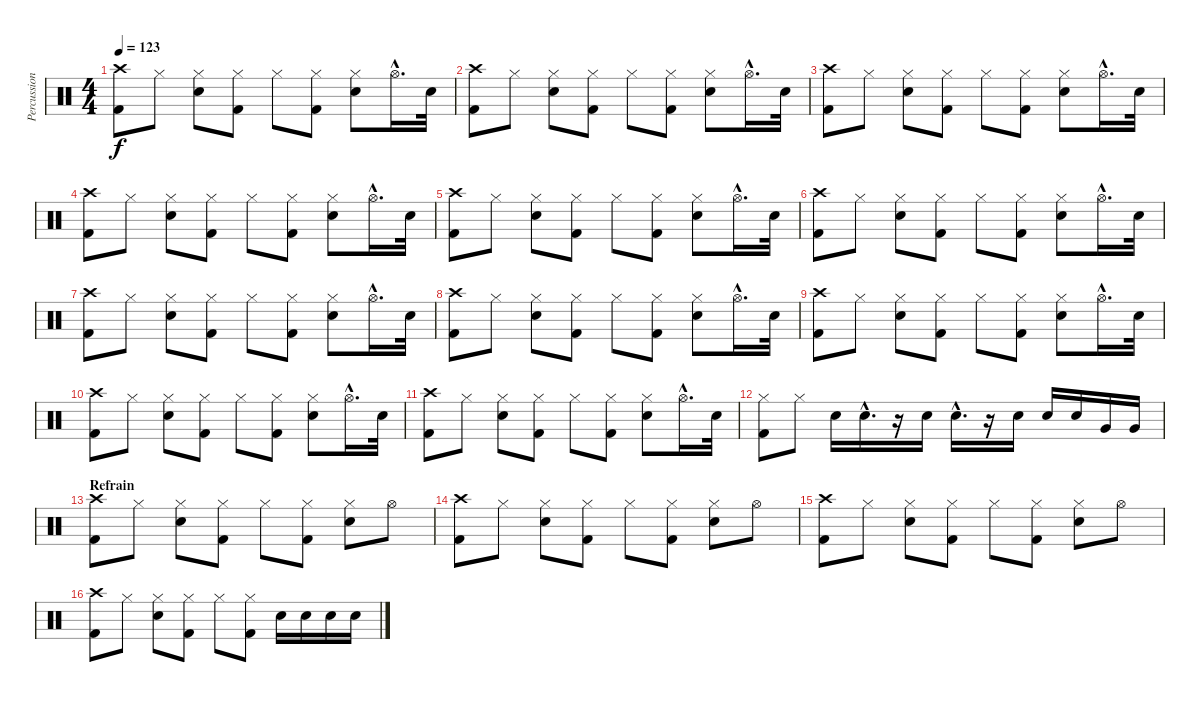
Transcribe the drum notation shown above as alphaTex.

\track ("Percussions" "Percussion") {instrument percussion}
\staff {score}
\articulation defaults
\ts (4 4)
\tempo 123
\clef neutral
\ks c
("Crash high (hit)" "Kick (hit) 2").8{dy f} "Hi-Hat (closed)".8 ("Hi-Hat (closed)" "Snare (hit) 2").8 ("Hi-Hat (closed)" "Kick (hit) 2").8 "Hi-Hat (closed)".8 ("Hi-Hat (closed)" "Kick (hit) 2").8 ("Hi-Hat (closed)" "Snare (hit) 2").8 "Hi-Hat (open)"{hac}.16{d} "Snare (hit) 2".32 |
("Crash high (hit)" "Kick (hit) 2").8 "Hi-Hat (closed)".8 ("Hi-Hat (closed)" "Snare (hit) 2").8 ("Hi-Hat (closed)" "Kick (hit) 2").8 "Hi-Hat (closed)".8 ("Hi-Hat (closed)" "Kick (hit) 2").8 ("Hi-Hat (closed)" "Snare (hit) 2").8 "Hi-Hat (open)"{hac}.16{d} "Snare (hit) 2".32 |
("Crash high (hit)" "Kick (hit) 2").8 "Hi-Hat (closed)".8 ("Hi-Hat (closed)" "Snare (hit) 2").8 ("Hi-Hat (closed)" "Kick (hit) 2").8 "Hi-Hat (closed)".8 ("Hi-Hat (closed)" "Kick (hit) 2").8 ("Hi-Hat (closed)" "Snare (hit) 2").8 "Hi-Hat (open)"{hac}.16{d} "Snare (hit) 2".32 |
("Crash high (hit)" "Kick (hit) 2").8 "Hi-Hat (closed)".8 ("Hi-Hat (closed)" "Snare (hit) 2").8 ("Hi-Hat (closed)" "Kick (hit) 2").8 "Hi-Hat (closed)".8 ("Hi-Hat (closed)" "Kick (hit) 2").8 ("Hi-Hat (closed)" "Snare (hit) 2").8 "Hi-Hat (open)"{hac}.16{d} "Snare (hit) 2".32 |
("Crash high (hit)" "Kick (hit) 2").8 "Hi-Hat (closed)".8 ("Hi-Hat (closed)" "Snare (hit) 2").8 ("Hi-Hat (closed)" "Kick (hit) 2").8 "Hi-Hat (closed)".8 ("Hi-Hat (closed)" "Kick (hit) 2").8 ("Hi-Hat (closed)" "Snare (hit) 2").8 "Hi-Hat (open)"{hac}.16{d} "Snare (hit) 2".32 |
("Crash high (hit)" "Kick (hit) 2").8 "Hi-Hat (closed)".8 ("Hi-Hat (closed)" "Snare (hit) 2").8 ("Hi-Hat (closed)" "Kick (hit) 2").8 "Hi-Hat (closed)".8 ("Hi-Hat (closed)" "Kick (hit) 2").8 ("Hi-Hat (closed)" "Snare (hit) 2").8 "Hi-Hat (open)"{hac}.16{d} "Snare (hit) 2".32 |
("Crash high (hit)" "Kick (hit) 2").8 "Hi-Hat (closed)".8 ("Hi-Hat (closed)" "Snare (hit) 2").8 ("Hi-Hat (closed)" "Kick (hit) 2").8 "Hi-Hat (closed)".8 ("Hi-Hat (closed)" "Kick (hit) 2").8 ("Hi-Hat (closed)" "Snare (hit) 2").8 "Hi-Hat (open)"{hac}.16{d} "Snare (hit) 2".32 |
("Crash high (hit)" "Kick (hit) 2").8 "Hi-Hat (closed)".8 ("Hi-Hat (closed)" "Snare (hit) 2").8 ("Hi-Hat (closed)" "Kick (hit) 2").8 "Hi-Hat (closed)".8 ("Hi-Hat (closed)" "Kick (hit) 2").8 ("Hi-Hat (closed)" "Snare (hit) 2").8 "Hi-Hat (open)"{hac}.16{d} "Snare (hit) 2".32 |
("Crash high (hit)" "Kick (hit) 2").8 "Hi-Hat (closed)".8 ("Hi-Hat (closed)" "Snare (hit) 2").8 ("Hi-Hat (closed)" "Kick (hit) 2").8 "Hi-Hat (closed)".8 ("Hi-Hat (closed)" "Kick (hit) 2").8 ("Hi-Hat (closed)" "Snare (hit) 2").8 "Hi-Hat (open)"{hac}.16{d} "Snare (hit) 2".32 |
("Crash high (hit)" "Kick (hit) 2").8 "Hi-Hat (closed)".8 ("Hi-Hat (closed)" "Snare (hit) 2").8 ("Hi-Hat (closed)" "Kick (hit) 2").8 "Hi-Hat (closed)".8 ("Hi-Hat (closed)" "Kick (hit) 2").8 ("Hi-Hat (closed)" "Snare (hit) 2").8 "Hi-Hat (open)"{hac}.16{d} "Snare (hit) 2".32 |
("Crash high (hit)" "Kick (hit) 2").8 "Hi-Hat (closed)".8 ("Hi-Hat (closed)" "Snare (hit) 2").8 ("Hi-Hat (closed)" "Kick (hit) 2").8 "Hi-Hat (closed)".8 ("Hi-Hat (closed)" "Kick (hit) 2").8 ("Hi-Hat (closed)" "Snare (hit) 2").8 "Hi-Hat (open)"{hac}.16{d} "Snare (hit) 2".32 |
("Hi-Hat (closed)" "Kick (hit) 2").8 "Hi-Hat (closed)".8 "Snare (hit) 2".16 "Snare (hit) 2"{hac}.16{d} r.16 "Snare (hit) 2".16 "Snare (hit) 2"{hac}.16{d} r.16 "Snare (hit) 2".16 "Snare (hit) 2".16 "Snare (hit) 2".16 "Very Low Tom (hit)".16 "Very Low Tom (hit)".16 |
\section ("" "Refrain")
("Crash high (hit)" "Kick (hit) 2").8 "Hi-Hat (closed)".8 ("Hi-Hat (closed)" "Snare (hit) 2").8 ("Hi-Hat (closed)" "Kick (hit) 2").8 "Hi-Hat (closed)".8 ("Hi-Hat (closed)" "Kick (hit) 2").8 ("Hi-Hat (closed)" "Snare (hit) 2").8 "Hi-Hat (open)".8 |
("Crash high (hit)" "Kick (hit) 2").8 "Hi-Hat (closed)".8 ("Hi-Hat (closed)" "Snare (hit) 2").8 ("Hi-Hat (closed)" "Kick (hit) 2").8 "Hi-Hat (closed)".8 ("Hi-Hat (closed)" "Kick (hit) 2").8 ("Hi-Hat (closed)" "Snare (hit) 2").8 "Hi-Hat (open)".8 |
("Crash high (hit)" "Kick (hit) 2").8 "Hi-Hat (closed)".8 ("Hi-Hat (closed)" "Snare (hit) 2").8 ("Hi-Hat (closed)" "Kick (hit) 2").8 "Hi-Hat (closed)".8 ("Hi-Hat (closed)" "Kick (hit) 2").8 ("Hi-Hat (closed)" "Snare (hit) 2").8 "Hi-Hat (open)".8 |
("Crash high (hit)" "Kick (hit) 2").8 "Hi-Hat (closed)".8 ("Hi-Hat (closed)" "Snare (hit) 2").8 ("Hi-Hat (closed)" "Kick (hit) 2").8 "Hi-Hat (closed)".8 ("Hi-Hat (closed)" "Kick (hit) 2").8 "Snare (hit) 2".16 "Snare (hit) 2".16 "Snare (hit) 2".16 "Snare (hit) 2".16
